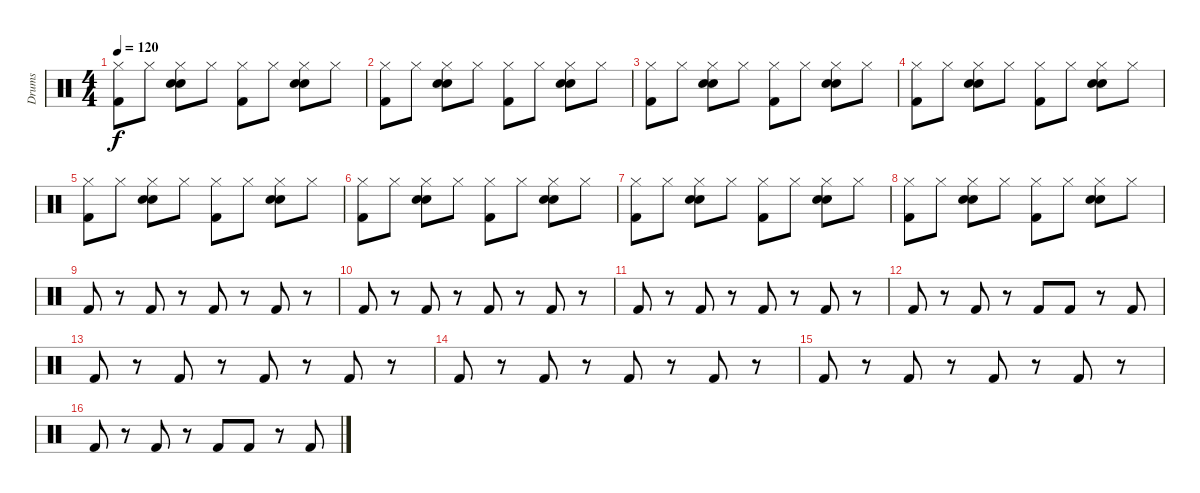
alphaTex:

\track ("Drums" "Drums") {instrument percussion}
\staff {score}
\articulation defaults
\ts (4 4)
\tempo 120
\clef neutral
\ks c
("Hi-Hat (closed)" "Kick (hit) 2").8{dy f} "Hi-Hat (closed)".8 ("Hand Clap (hit)" "Hi-Hat (closed)" "Electric Snare (hit)").8 "Hi-Hat (closed)".8 ("Hi-Hat (closed)" "Kick (hit) 2").8 "Hi-Hat (closed)".8 ("Hand Clap (hit)" "Hi-Hat (closed)" "Electric Snare (hit)").8 "Hi-Hat (closed)".8 |
("Hi-Hat (closed)" "Kick (hit) 2").8 "Hi-Hat (closed)".8 ("Hand Clap (hit)" "Hi-Hat (closed)" "Electric Snare (hit)").8 "Hi-Hat (closed)".8 ("Hi-Hat (closed)" "Kick (hit) 2").8 "Hi-Hat (closed)".8 ("Hand Clap (hit)" "Hi-Hat (closed)" "Electric Snare (hit)").8 "Hi-Hat (closed)".8 |
("Hi-Hat (closed)" "Kick (hit) 2").8 "Hi-Hat (closed)".8 ("Hand Clap (hit)" "Hi-Hat (closed)" "Electric Snare (hit)").8 "Hi-Hat (closed)".8 ("Hi-Hat (closed)" "Kick (hit) 2").8 "Hi-Hat (closed)".8 ("Hand Clap (hit)" "Hi-Hat (closed)" "Electric Snare (hit)").8 "Hi-Hat (closed)".8 |
("Hi-Hat (closed)" "Kick (hit) 2").8 "Hi-Hat (closed)".8 ("Hand Clap (hit)" "Hi-Hat (closed)" "Electric Snare (hit)").8 "Hi-Hat (closed)".8 ("Hi-Hat (closed)" "Kick (hit) 2").8 "Hi-Hat (closed)".8 ("Hand Clap (hit)" "Hi-Hat (closed)" "Electric Snare (hit)").8 "Hi-Hat (closed)".8 |
("Hi-Hat (closed)" "Kick (hit) 2").8 "Hi-Hat (closed)".8 ("Hand Clap (hit)" "Hi-Hat (closed)" "Electric Snare (hit)").8 "Hi-Hat (closed)".8 ("Hi-Hat (closed)" "Kick (hit) 2").8 "Hi-Hat (closed)".8 ("Hand Clap (hit)" "Hi-Hat (closed)" "Electric Snare (hit)").8 "Hi-Hat (closed)".8 |
("Hi-Hat (closed)" "Kick (hit) 2").8 "Hi-Hat (closed)".8 ("Hand Clap (hit)" "Hi-Hat (closed)" "Electric Snare (hit)").8 "Hi-Hat (closed)".8 ("Hi-Hat (closed)" "Kick (hit) 2").8 "Hi-Hat (closed)".8 ("Hand Clap (hit)" "Hi-Hat (closed)" "Electric Snare (hit)").8 "Hi-Hat (closed)".8 |
("Hi-Hat (closed)" "Kick (hit) 2").8 "Hi-Hat (closed)".8 ("Hand Clap (hit)" "Hi-Hat (closed)" "Electric Snare (hit)").8 "Hi-Hat (closed)".8 ("Hi-Hat (closed)" "Kick (hit) 2").8 "Hi-Hat (closed)".8 ("Hand Clap (hit)" "Hi-Hat (closed)" "Electric Snare (hit)").8 "Hi-Hat (closed)".8 |
("Hi-Hat (closed)" "Kick (hit) 2").8 "Hi-Hat (closed)".8 ("Hand Clap (hit)" "Hi-Hat (closed)" "Electric Snare (hit)").8 "Hi-Hat (closed)".8 ("Hi-Hat (closed)" "Kick (hit) 2").8 "Hi-Hat (closed)".8 ("Hand Clap (hit)" "Hi-Hat (closed)" "Electric Snare (hit)").8 "Hi-Hat (closed)".8 |
"Kick (hit) 2".8 r.8 "Kick (hit) 2".8 r.8 "Kick (hit) 2".8 r.8 "Kick (hit) 2".8 r.8 |
"Kick (hit) 2".8 r.8 "Kick (hit) 2".8 r.8 "Kick (hit) 2".8 r.8 "Kick (hit) 2".8 r.8 |
"Kick (hit) 2".8 r.8 "Kick (hit) 2".8 r.8 "Kick (hit) 2".8 r.8 "Kick (hit) 2".8 r.8 |
"Kick (hit) 2".8 r.8 "Kick (hit) 2".8 r.8 "Kick (hit) 2".8 "Kick (hit) 2".8 r.8 "Kick (hit) 2".8 |
"Kick (hit) 2".8 r.8 "Kick (hit) 2".8 r.8 "Kick (hit) 2".8 r.8 "Kick (hit) 2".8 r.8 |
"Kick (hit) 2".8 r.8 "Kick (hit) 2".8 r.8 "Kick (hit) 2".8 r.8 "Kick (hit) 2".8 r.8 |
"Kick (hit) 2".8 r.8 "Kick (hit) 2".8 r.8 "Kick (hit) 2".8 r.8 "Kick (hit) 2".8 r.8 |
"Kick (hit) 2".8 r.8 "Kick (hit) 2".8 r.8 "Kick (hit) 2".8 "Kick (hit) 2".8 r.8 "Kick (hit) 2".8
